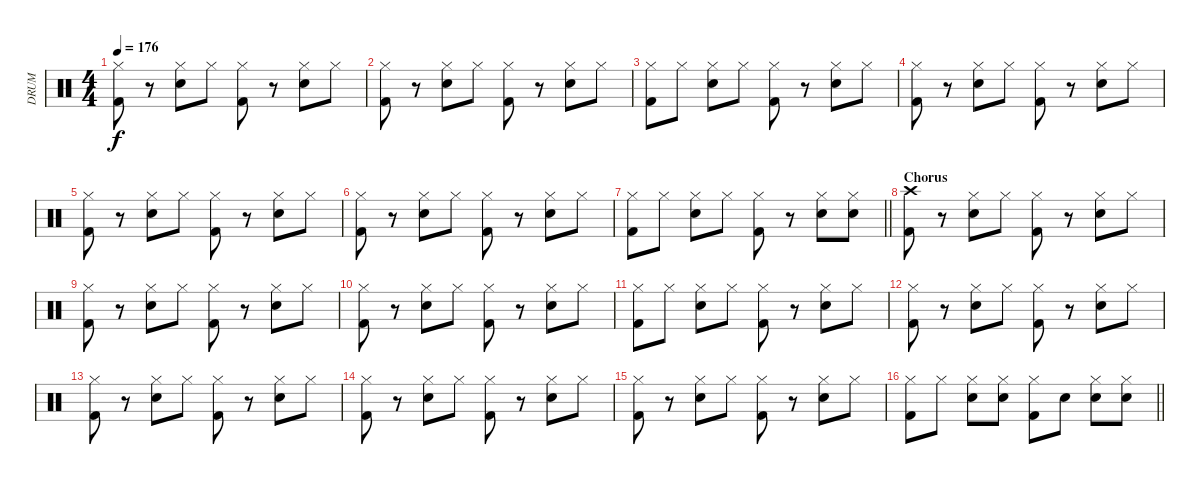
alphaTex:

\track ("DRUM" "DRUM") {instrument percussion}
\staff {score}
\articulation defaults
\ts (4 4)
\tempo 176
\clef neutral
\ks c
("Hi-Hat (closed)" "Kick (hit) 2").8{dy f} r.8 ("Hi-Hat (closed)" "Electric Snare (hit)").8 "Hi-Hat (closed)".8 ("Hi-Hat (closed)" "Kick (hit) 2").8 r.8 ("Hi-Hat (closed)" "Electric Snare (hit)").8 "Hi-Hat (closed)".8 |
("Hi-Hat (closed)" "Kick (hit) 2").8 r.8 ("Hi-Hat (closed)" "Electric Snare (hit)").8 "Hi-Hat (closed)".8 ("Hi-Hat (closed)" "Kick (hit) 2").8 r.8 ("Hi-Hat (closed)" "Electric Snare (hit)").8 "Hi-Hat (closed)".8 |
("Hi-Hat (closed)" "Kick (hit) 2").8 "Hi-Hat (closed)".8 ("Hi-Hat (closed)" "Electric Snare (hit)").8 "Hi-Hat (closed)".8 ("Hi-Hat (closed)" "Kick (hit) 2").8 r.8 ("Hi-Hat (closed)" "Electric Snare (hit)").8 "Hi-Hat (closed)".8 |
("Hi-Hat (closed)" "Kick (hit) 2").8 r.8 ("Hi-Hat (closed)" "Electric Snare (hit)").8 "Hi-Hat (closed)".8 ("Hi-Hat (closed)" "Kick (hit) 2").8 r.8 ("Hi-Hat (closed)" "Electric Snare (hit)").8 "Hi-Hat (closed)".8 |
("Hi-Hat (closed)" "Kick (hit) 2").8 r.8 ("Hi-Hat (closed)" "Electric Snare (hit)").8 "Hi-Hat (closed)".8 ("Hi-Hat (closed)" "Kick (hit) 2").8 r.8 ("Hi-Hat (closed)" "Electric Snare (hit)").8 "Hi-Hat (closed)".8 |
("Hi-Hat (closed)" "Kick (hit) 2").8 r.8 ("Hi-Hat (closed)" "Electric Snare (hit)").8 "Hi-Hat (closed)".8 ("Hi-Hat (closed)" "Kick (hit) 2").8 r.8 ("Hi-Hat (closed)" "Electric Snare (hit)").8 "Hi-Hat (closed)".8 |
\barLineRight lightlight
("Hi-Hat (closed)" "Kick (hit) 2").8 "Hi-Hat (closed)".8 ("Hi-Hat (closed)" "Electric Snare (hit)").8 "Hi-Hat (closed)".8 ("Hi-Hat (closed)" "Kick (hit) 2").8 r.8 ("Hi-Hat (closed)" "Electric Snare (hit)").8 ("Hi-Hat (closed)" "Electric Snare (hit)").8 |
\section ("" "Chorus")
("Crash high (hit)" "Kick (hit) 2").8 r.8 ("Hi-Hat (closed)" "Electric Snare (hit)").8 "Hi-Hat (closed)".8 ("Hi-Hat (closed)" "Kick (hit) 2").8 r.8 ("Hi-Hat (closed)" "Electric Snare (hit)").8 "Hi-Hat (closed)".8 |
("Hi-Hat (closed)" "Kick (hit) 2").8 r.8 ("Hi-Hat (closed)" "Electric Snare (hit)").8 "Hi-Hat (closed)".8 ("Hi-Hat (closed)" "Kick (hit) 2").8 r.8 ("Hi-Hat (closed)" "Electric Snare (hit)").8 "Hi-Hat (closed)".8 |
("Hi-Hat (closed)" "Kick (hit) 2").8 r.8 ("Hi-Hat (closed)" "Electric Snare (hit)").8 "Hi-Hat (closed)".8 ("Hi-Hat (closed)" "Kick (hit) 2").8 r.8 ("Hi-Hat (closed)" "Electric Snare (hit)").8 "Hi-Hat (closed)".8 |
("Hi-Hat (closed)" "Kick (hit) 2").8 "Hi-Hat (closed)".8 ("Hi-Hat (closed)" "Electric Snare (hit)").8 "Hi-Hat (closed)".8 ("Hi-Hat (closed)" "Kick (hit) 2").8 r.8 ("Hi-Hat (closed)" "Electric Snare (hit)").8 "Hi-Hat (closed)".8 |
("Hi-Hat (closed)" "Kick (hit) 2").8 r.8 ("Hi-Hat (closed)" "Electric Snare (hit)").8 "Hi-Hat (closed)".8 ("Hi-Hat (closed)" "Kick (hit) 2").8 r.8 ("Hi-Hat (closed)" "Electric Snare (hit)").8 "Hi-Hat (closed)".8 |
("Hi-Hat (closed)" "Kick (hit) 2").8 r.8 ("Hi-Hat (closed)" "Electric Snare (hit)").8 "Hi-Hat (closed)".8 ("Hi-Hat (closed)" "Kick (hit) 2").8 r.8 ("Hi-Hat (closed)" "Electric Snare (hit)").8 "Hi-Hat (closed)".8 |
("Hi-Hat (closed)" "Kick (hit) 2").8 r.8 ("Hi-Hat (closed)" "Electric Snare (hit)").8 "Hi-Hat (closed)".8 ("Hi-Hat (closed)" "Kick (hit) 2").8 r.8 ("Hi-Hat (closed)" "Electric Snare (hit)").8 "Hi-Hat (closed)".8 |
("Hi-Hat (closed)" "Kick (hit) 2").8 r.8 ("Hi-Hat (closed)" "Electric Snare (hit)").8 "Hi-Hat (closed)".8 ("Hi-Hat (closed)" "Kick (hit) 2").8 r.8 ("Hi-Hat (closed)" "Electric Snare (hit)").8 "Hi-Hat (closed)".8 |
\barLineRight lightlight
("Hi-Hat (closed)" "Kick (hit) 2").8 "Hi-Hat (closed)".8 ("Hi-Hat (closed)" "Electric Snare (hit)").8 ("Hi-Hat (closed)" "Electric Snare (hit)").8 ("Hi-Hat (closed)" "Kick (hit) 2").8 "Electric Snare (hit)".8 ("Hi-Hat (closed)" "Electric Snare (hit)").8 ("Hi-Hat (closed)" "Electric Snare (hit)").8
